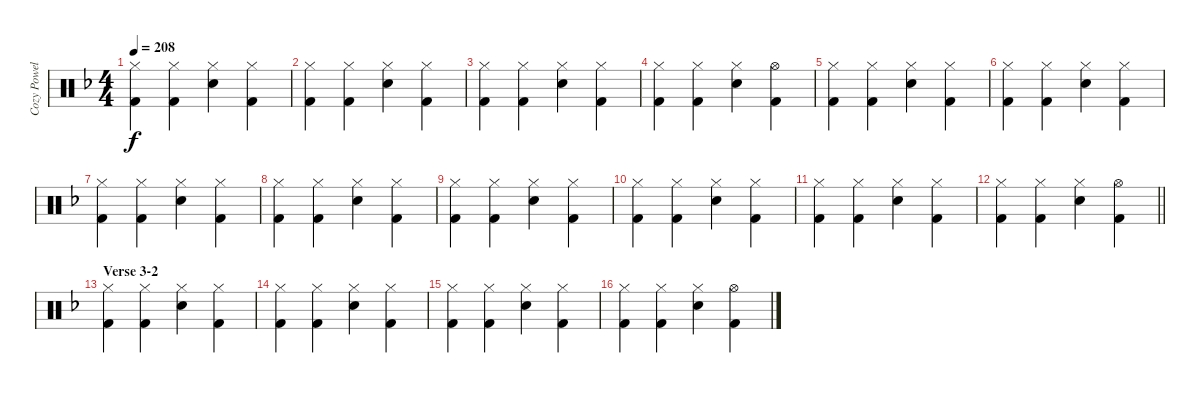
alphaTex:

\track ("Cozy Powell" "Cozy Powel") {instrument percussion}
\staff {score}
\articulation defaults
\ts (4 4)
\tempo 208
\clef neutral
\ks f
("Hi-Hat (closed)" "Kick (hit) 2").4{dy f} ("Hi-Hat (closed)" "Kick (hit) 2").4 ("Hi-Hat (closed)" "Snare (hit) 2").4 ("Hi-Hat (closed)" "Kick (hit) 2").4 |
("Hi-Hat (closed)" "Kick (hit) 2").4 ("Hi-Hat (closed)" "Kick (hit) 2").4 ("Hi-Hat (closed)" "Snare (hit) 2").4 ("Hi-Hat (closed)" "Kick (hit) 2").4 |
("Hi-Hat (closed)" "Kick (hit) 2").4 ("Hi-Hat (closed)" "Kick (hit) 2").4 ("Hi-Hat (closed)" "Snare (hit) 2").4 ("Hi-Hat (closed)" "Kick (hit) 2").4 |
("Hi-Hat (closed)" "Kick (hit) 2").4 ("Hi-Hat (closed)" "Kick (hit) 2").4 ("Hi-Hat (closed)" "Snare (hit) 2").4 ("Hi-Hat (open)" "Kick (hit) 2").4 |
("Hi-Hat (closed)" "Kick (hit) 2").4 ("Hi-Hat (closed)" "Kick (hit) 2").4 ("Hi-Hat (closed)" "Snare (hit) 2").4 ("Hi-Hat (closed)" "Kick (hit) 2").4 |
("Hi-Hat (closed)" "Kick (hit) 2").4 ("Hi-Hat (closed)" "Kick (hit) 2").4 ("Hi-Hat (closed)" "Snare (hit) 2").4 ("Hi-Hat (closed)" "Kick (hit) 2").4 |
("Hi-Hat (closed)" "Kick (hit) 2").4 ("Hi-Hat (closed)" "Kick (hit) 2").4 ("Hi-Hat (closed)" "Snare (hit) 2").4 ("Hi-Hat (closed)" "Kick (hit) 2").4 |
("Hi-Hat (closed)" "Kick (hit) 2").4 ("Hi-Hat (closed)" "Kick (hit) 2").4 ("Hi-Hat (closed)" "Snare (hit) 2").4 ("Hi-Hat (closed)" "Kick (hit) 2").4 |
("Hi-Hat (closed)" "Kick (hit) 2").4 ("Hi-Hat (closed)" "Kick (hit) 2").4 ("Hi-Hat (closed)" "Snare (hit) 2").4 ("Hi-Hat (closed)" "Kick (hit) 2").4 |
("Hi-Hat (closed)" "Kick (hit) 2").4 ("Hi-Hat (closed)" "Kick (hit) 2").4 ("Hi-Hat (closed)" "Snare (hit) 2").4 ("Hi-Hat (closed)" "Kick (hit) 2").4 |
("Hi-Hat (closed)" "Kick (hit) 2").4 ("Hi-Hat (closed)" "Kick (hit) 2").4 ("Hi-Hat (closed)" "Snare (hit) 2").4 ("Hi-Hat (closed)" "Kick (hit) 2").4 |
\barLineRight lightlight
("Hi-Hat (closed)" "Kick (hit) 2").4 ("Hi-Hat (closed)" "Kick (hit) 2").4 ("Hi-Hat (closed)" "Snare (hit) 2").4 ("Hi-Hat (open)" "Kick (hit) 2").4 |
\section ("" "Verse 3-2")
("Hi-Hat (closed)" "Kick (hit) 2").4 ("Hi-Hat (closed)" "Kick (hit) 2").4 ("Hi-Hat (closed)" "Snare (hit) 2").4 ("Hi-Hat (closed)" "Kick (hit) 2").4 |
("Hi-Hat (closed)" "Kick (hit) 2").4 ("Hi-Hat (closed)" "Kick (hit) 2").4 ("Hi-Hat (closed)" "Snare (hit) 2").4 ("Hi-Hat (closed)" "Kick (hit) 2").4 |
("Hi-Hat (closed)" "Kick (hit) 2").4 ("Hi-Hat (closed)" "Kick (hit) 2").4 ("Hi-Hat (closed)" "Snare (hit) 2").4 ("Hi-Hat (closed)" "Kick (hit) 2").4 |
("Hi-Hat (closed)" "Kick (hit) 2").4 ("Hi-Hat (closed)" "Kick (hit) 2").4 ("Hi-Hat (closed)" "Snare (hit) 2").4 ("Hi-Hat (open)" "Kick (hit) 2").4
